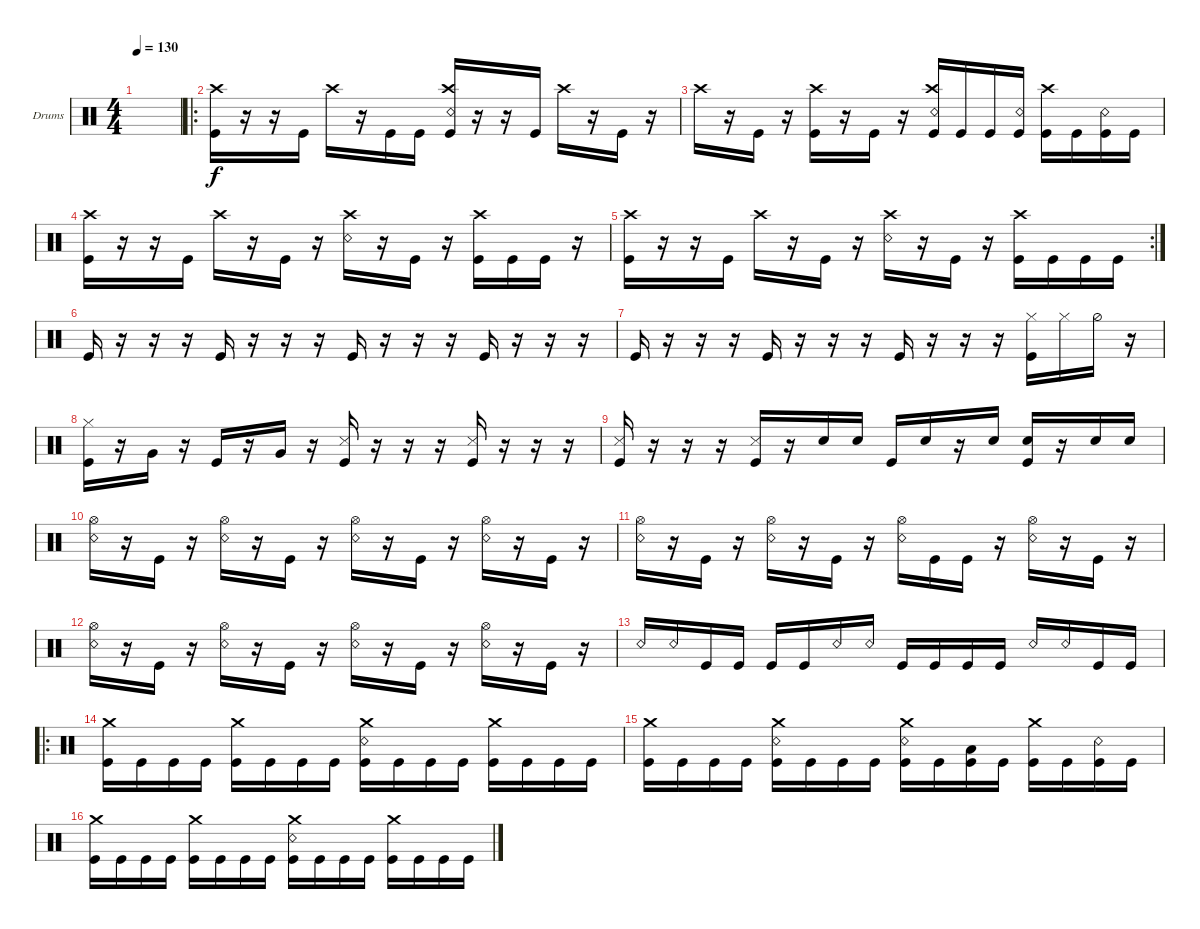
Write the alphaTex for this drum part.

\defaultSystemsLayout 4
\bracketExtendMode groupsimilarinstruments
\firstSystemTrackNameOrientation horizontal
\otherSystemsTrackNameOrientation horizontal
\track ("Drums" "Drums") {instrument percussion}
\staff {score}
\articulation defaults
\ts (4 4)
\tempo 130
\clef neutral
\ks c
|
\ro
("Kick (hit)" "Crash high (hit)").16 r.16 r.16 "Kick (hit)".16 "Crash high (hit)".16 r.16 "Kick (hit)".16 "Kick (hit)".16 ("Kick (hit)" "Crash high (hit)" "Snare (rim shot)").16 r.16 r.16 "Kick (hit)".16 "Crash high (hit)".16 r.16 "Kick (hit)".16 r.16 |
"Crash high (hit)".16 r.16 "Kick (hit)".16 r.16 ("Crash high (hit)" "Kick (hit)").16 r.16 "Kick (hit)".16 r.16 ("Crash high (hit)" "Kick (hit)" "Snare (rim shot)").16 "Kick (hit)".16 "Kick (hit)".16 ("Kick (hit)" "Snare (rim shot)").16 ("Crash high (hit)" "Kick (hit)").16 "Kick (hit)".16 ("Kick (hit)" "Snare (rim shot)").16 "Kick (hit)".16 |
("Kick (hit)" "Crash high (hit)").16 r.16 r.16 "Kick (hit)".16 "Crash high (hit)".16 r.16 "Kick (hit)".16 r.16 ("Crash high (hit)" "Snare (rim shot)").16 r.16 "Kick (hit)".16 r.16 ("Crash high (hit)" "Kick (hit)").16 "Kick (hit)".16 "Kick (hit)".16 r.16 |
\rc 2
("Kick (hit)" "Crash high (hit)").16 r.16 r.16 "Kick (hit)".16 "Crash high (hit)".16 r.16 "Kick (hit)".16 r.16 ("Crash high (hit)" "Snare (rim shot)").16 r.16 "Kick (hit)".16 r.16 ("Crash high (hit)" "Kick (hit)").16 "Kick (hit)".16 "Kick (hit)".16 "Kick (hit)".16 |
"Kick (hit)".16 r.16 r.16 r.16 "Kick (hit)".16 r.16 r.16 r.16 "Kick (hit)".16 r.16 r.16 r.16 "Kick (hit)".16 r.16 r.16 r.16 |
"Kick (hit)".16 r.16 r.16 r.16 "Kick (hit)".16 r.16 r.16 r.16 "Kick (hit)".16 r.16 r.16 r.16 ("Kick (hit)" "Hi-Hat (closed)").16 "Hi-Hat (closed)".16 "Hi-Hat (half)".16 r.16 |
("Kick (hit)" "Hi-Hat (closed)").16 r.16 "Very Low Tom (hit)".16 r.16 "Kick (hit)".16 r.16 "Very Low Tom (hit)".16 r.16 ("Kick (hit)" "Snare (side stick) 3").16 r.16 r.16 r.16 ("Kick (hit)" "Snare (side stick) 3").16 r.16 r.16 r.16 |
("Snare (side stick) 3" "Kick (hit)").16 r.16 r.16 r.16 ("Kick (hit)" "Snare (side stick) 3").16 r.16 "Snare (hit) 2".16 "Snare (hit) 2".16 "Kick (hit)".16 "Snare (hit) 2".16 r.16 "Snare (hit) 2".16 ("Kick (hit)" "Snare (hit) 2").16 r.16 "Snare (hit) 2".16 "Snare (hit) 2".16 |
("Hi-Hat (open)" "Snare (rim shot)").16 r.16 "Kick (hit)".16 r.16 ("Snare (rim shot)" "Hi-Hat (open)").16 r.16 "Kick (hit)".16 r.16 ("Hi-Hat (open)" "Snare (rim shot)").16 r.16 "Kick (hit)".16 r.16 ("Hi-Hat (open)" "Snare (rim shot)").16 r.16 "Kick (hit)".16 r.16 |
("Hi-Hat (open)" "Snare (rim shot)").16 r.16 "Kick (hit)".16 r.16 ("Snare (rim shot)" "Hi-Hat (open)").16 r.16 "Kick (hit)".16 r.16 ("Hi-Hat (open)" "Snare (rim shot)").16 "Kick (hit)".16 "Kick (hit)".16 r.16 ("Hi-Hat (open)" "Snare (rim shot)").16 r.16 "Kick (hit)".16 r.16 |
("Hi-Hat (open)" "Snare (rim shot)").16 r.16 "Kick (hit)".16 r.16 ("Snare (rim shot)" "Hi-Hat (open)").16 r.16 "Kick (hit)".16 r.16 ("Hi-Hat (open)" "Snare (rim shot)").16 r.16 "Kick (hit)".16 r.16 ("Hi-Hat (open)" "Snare (rim shot)").16 r.16 "Kick (hit)".16 r.16 |
"Snare (rim shot)".16 "Snare (rim shot)".16 "Kick (hit)".16 "Kick (hit)".16 "Kick (hit)".16 "Kick (hit)".16 "Snare (rim shot)".16 "Snare (rim shot)".16 "Kick (hit)".16 "Kick (hit)".16 "Kick (hit)".16 "Kick (hit)".16 "Snare (rim shot)".16 "Snare (rim shot)".16 "Kick (hit)".16 "Kick (hit)".16 |
\ro
("Kick (hit)" "Crash medium (hit)").16 "Kick (hit)".16 "Kick (hit)".16 "Kick (hit)".16 ("Kick (hit)" "Crash medium (hit)").16 "Kick (hit)".16 "Kick (hit)".16 "Kick (hit)".16 ("Kick (hit)" "Crash medium (hit)" "Snare (rim shot)").16 "Kick (hit)".16 "Kick (hit)".16 "Kick (hit)".16 ("Kick (hit)" "Crash medium (hit)").16 "Kick (hit)".16 "Kick (hit)".16 "Kick (hit)".16 |
("Kick (hit)" "Crash medium (hit)").16 "Kick (hit)".16 "Kick (hit)".16 "Kick (hit)".16 ("Kick (hit)" "Crash medium (hit)" "Snare (rim shot)").16 "Kick (hit)".16 "Kick (hit)".16 "Kick (hit)".16 ("Kick (hit)" "Crash medium (hit)" "Snare (rim shot)").16 "Kick (hit)".16 ("Kick (hit)" "Low Tom (hit)").16 "Kick (hit)".16 ("Kick (hit)" "Crash medium (hit)").16 "Kick (hit)".16 ("Kick (hit)" "Snare (rim shot)").16 "Kick (hit)".16 |
("Kick (hit)" "Crash medium (hit)").16 "Kick (hit)".16 "Kick (hit)".16 "Kick (hit)".16 ("Kick (hit)" "Crash medium (hit)").16 "Kick (hit)".16 "Kick (hit)".16 "Kick (hit)".16 ("Kick (hit)" "Crash medium (hit)" "Snare (rim shot)").16 "Kick (hit)".16 "Kick (hit)".16 "Kick (hit)".16 ("Kick (hit)" "Crash medium (hit)").16 "Kick (hit)".16 "Kick (hit)".16 "Kick (hit)".16
